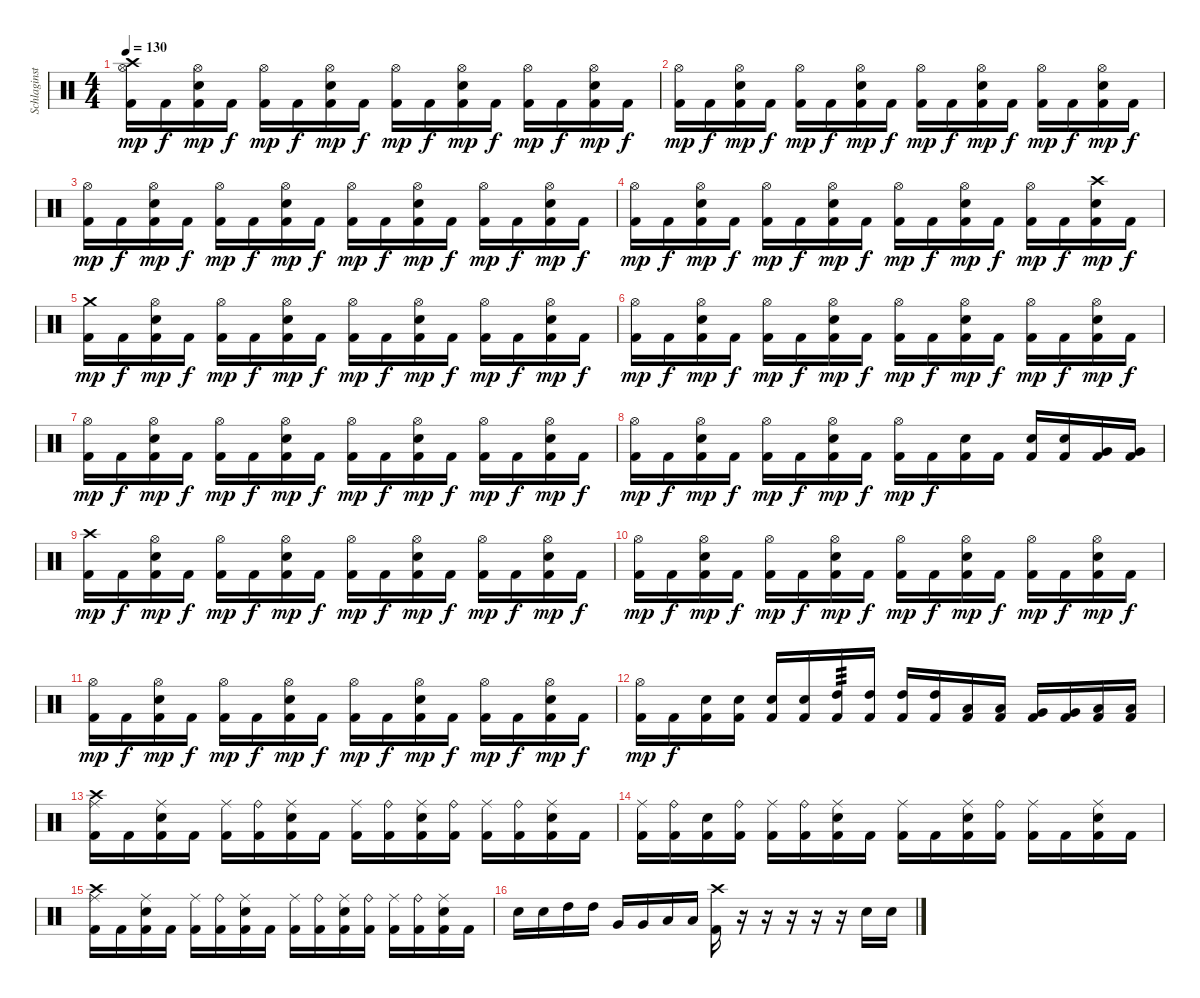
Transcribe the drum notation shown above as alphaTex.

\track ("Schlaginstrumente - Auswahl" "Schlaginst") {instrument percussion}
\staff {score}
\articulation defaults
\ts (4 4)
\tempo 130
\clef neutral
\ks c
("Crash high (hit)" "Hi-Hat (open)" "Kick (hit) 2").16{dy mp} "Kick (hit) 2".16{dy f} ("Hi-Hat (open)" "Electric Snare (hit)" "Kick (hit) 2").16{dy mp} "Kick (hit) 2".16{dy f} ("Hi-Hat (open)" "Kick (hit) 2").16{dy mp} "Kick (hit) 2".16{dy f} ("Hi-Hat (open)" "Electric Snare (hit)" "Kick (hit) 2").16{dy mp} "Kick (hit) 2".16{dy f} ("Hi-Hat (open)" "Kick (hit) 2").16{dy mp} "Kick (hit) 2".16{dy f} ("Hi-Hat (open)" "Electric Snare (hit)" "Kick (hit) 2").16{dy mp} "Kick (hit) 2".16{dy f} ("Hi-Hat (open)" "Kick (hit) 2").16{dy mp} "Kick (hit) 2".16{dy f} ("Hi-Hat (open)" "Electric Snare (hit)" "Kick (hit) 2").16{dy mp} "Kick (hit) 2".16{dy f} |
("Hi-Hat (open)" "Kick (hit) 2").16{dy mp} "Kick (hit) 2".16{dy f} ("Hi-Hat (open)" "Electric Snare (hit)" "Kick (hit) 2").16{dy mp} "Kick (hit) 2".16{dy f} ("Hi-Hat (open)" "Kick (hit) 2").16{dy mp} "Kick (hit) 2".16{dy f} ("Hi-Hat (open)" "Electric Snare (hit)" "Kick (hit) 2").16{dy mp} "Kick (hit) 2".16{dy f} ("Hi-Hat (open)" "Kick (hit) 2").16{dy mp} "Kick (hit) 2".16{dy f} ("Hi-Hat (open)" "Electric Snare (hit)" "Kick (hit) 2").16{dy mp} "Kick (hit) 2".16{dy f} ("Hi-Hat (open)" "Kick (hit) 2").16{dy mp} "Kick (hit) 2".16{dy f} ("Hi-Hat (open)" "Electric Snare (hit)" "Kick (hit) 2").16{dy mp} "Kick (hit) 2".16{dy f} |
("Hi-Hat (open)" "Kick (hit) 2").16{dy mp} "Kick (hit) 2".16{dy f} ("Hi-Hat (open)" "Electric Snare (hit)" "Kick (hit) 2").16{dy mp} "Kick (hit) 2".16{dy f} ("Hi-Hat (open)" "Kick (hit) 2").16{dy mp} "Kick (hit) 2".16{dy f} ("Hi-Hat (open)" "Electric Snare (hit)" "Kick (hit) 2").16{dy mp} "Kick (hit) 2".16{dy f} ("Hi-Hat (open)" "Kick (hit) 2").16{dy mp} "Kick (hit) 2".16{dy f} ("Hi-Hat (open)" "Electric Snare (hit)" "Kick (hit) 2").16{dy mp} "Kick (hit) 2".16{dy f} ("Hi-Hat (open)" "Kick (hit) 2").16{dy mp} "Kick (hit) 2".16{dy f} ("Hi-Hat (open)" "Electric Snare (hit)" "Kick (hit) 2").16{dy mp} "Kick (hit) 2".16{dy f} |
("Hi-Hat (open)" "Kick (hit) 2").16{dy mp} "Kick (hit) 2".16{dy f} ("Hi-Hat (open)" "Electric Snare (hit)" "Kick (hit) 2").16{dy mp} "Kick (hit) 2".16{dy f} ("Hi-Hat (open)" "Kick (hit) 2").16{dy mp} "Kick (hit) 2".16{dy f} ("Hi-Hat (open)" "Electric Snare (hit)" "Kick (hit) 2").16{dy mp} "Kick (hit) 2".16{dy f} ("Hi-Hat (open)" "Kick (hit) 2").16{dy mp} "Kick (hit) 2".16{dy f} ("Hi-Hat (open)" "Electric Snare (hit)" "Kick (hit) 2").16{dy mp} "Kick (hit) 2".16{dy f} ("Hi-Hat (open)" "Kick (hit) 2").16{dy mp} "Kick (hit) 2".16{dy f} ("Crash high (hit)" "Electric Snare (hit)" "Kick (hit) 2").16{dy mp} "Kick (hit) 2".16{dy f} |
("Crash medium (hit)" "Kick (hit) 2").16{dy mp} "Kick (hit) 2".16{dy f} ("Hi-Hat (open)" "Electric Snare (hit)" "Kick (hit) 2").16{dy mp} "Kick (hit) 2".16{dy f} ("Hi-Hat (open)" "Kick (hit) 2").16{dy mp} "Kick (hit) 2".16{dy f} ("Hi-Hat (open)" "Electric Snare (hit)" "Kick (hit) 2").16{dy mp} "Kick (hit) 2".16{dy f} ("Hi-Hat (open)" "Kick (hit) 2").16{dy mp} "Kick (hit) 2".16{dy f} ("Hi-Hat (open)" "Electric Snare (hit)" "Kick (hit) 2").16{dy mp} "Kick (hit) 2".16{dy f} ("Hi-Hat (open)" "Kick (hit) 2").16{dy mp} "Kick (hit) 2".16{dy f} ("Hi-Hat (open)" "Electric Snare (hit)" "Kick (hit) 2").16{dy mp} "Kick (hit) 2".16{dy f} |
("Hi-Hat (open)" "Kick (hit) 2").16{dy mp} "Kick (hit) 2".16{dy f} ("Hi-Hat (open)" "Electric Snare (hit)" "Kick (hit) 2").16{dy mp} "Kick (hit) 2".16{dy f} ("Hi-Hat (open)" "Kick (hit) 2").16{dy mp} "Kick (hit) 2".16{dy f} ("Hi-Hat (open)" "Electric Snare (hit)" "Kick (hit) 2").16{dy mp} "Kick (hit) 2".16{dy f} ("Hi-Hat (open)" "Kick (hit) 2").16{dy mp} "Kick (hit) 2".16{dy f} ("Hi-Hat (open)" "Electric Snare (hit)" "Kick (hit) 2").16{dy mp} "Kick (hit) 2".16{dy f} ("Hi-Hat (open)" "Kick (hit) 2").16{dy mp} "Kick (hit) 2".16{dy f} ("Hi-Hat (open)" "Electric Snare (hit)" "Kick (hit) 2").16{dy mp} "Kick (hit) 2".16{dy f} |
("Hi-Hat (open)" "Kick (hit) 2").16{dy mp} "Kick (hit) 2".16{dy f} ("Hi-Hat (open)" "Electric Snare (hit)" "Kick (hit) 2").16{dy mp} "Kick (hit) 2".16{dy f} ("Hi-Hat (open)" "Kick (hit) 2").16{dy mp} "Kick (hit) 2".16{dy f} ("Hi-Hat (open)" "Electric Snare (hit)" "Kick (hit) 2").16{dy mp} "Kick (hit) 2".16{dy f} ("Hi-Hat (open)" "Kick (hit) 2").16{dy mp} "Kick (hit) 2".16{dy f} ("Hi-Hat (open)" "Electric Snare (hit)" "Kick (hit) 2").16{dy mp} "Kick (hit) 2".16{dy f} ("Hi-Hat (open)" "Kick (hit) 2").16{dy mp} "Kick (hit) 2".16{dy f} ("Hi-Hat (open)" "Electric Snare (hit)" "Kick (hit) 2").16{dy mp} "Kick (hit) 2".16{dy f} |
("Hi-Hat (open)" "Kick (hit) 2").16{dy mp} "Kick (hit) 2".16{dy f} ("Hi-Hat (open)" "Electric Snare (hit)" "Kick (hit) 2").16{dy mp} "Kick (hit) 2".16{dy f} ("Hi-Hat (open)" "Kick (hit) 2").16{dy mp} "Kick (hit) 2".16{dy f} ("Hi-Hat (open)" "Electric Snare (hit)" "Kick (hit) 2").16{dy mp} "Kick (hit) 2".16{dy f} ("Hi-Hat (open)" "Kick (hit) 2").16{dy mp} "Kick (hit) 2".16{dy f} ("Electric Snare (hit)" "Kick (hit) 2").16 "Kick (hit) 2".16 ("Electric Snare (hit)" "Kick (hit) 2").16 ("Electric Snare (hit)" "Kick (hit) 2").16 ("Very Low Tom (hit)" "Kick (hit) 2").16 ("Very Low Tom (hit)" "Kick (hit) 2").16 |
("Crash high (hit)" "Kick (hit) 2").16{dy mp} "Kick (hit) 2".16{dy f} ("Hi-Hat (open)" "Electric Snare (hit)" "Kick (hit) 2").16{dy mp} "Kick (hit) 2".16{dy f} ("Hi-Hat (open)" "Kick (hit) 2").16{dy mp} "Kick (hit) 2".16{dy f} ("Hi-Hat (open)" "Electric Snare (hit)" "Kick (hit) 2").16{dy mp} "Kick (hit) 2".16{dy f} ("Hi-Hat (open)" "Kick (hit) 2").16{dy mp} "Kick (hit) 2".16{dy f} ("Hi-Hat (open)" "Electric Snare (hit)" "Kick (hit) 2").16{dy mp} "Kick (hit) 2".16{dy f} ("Hi-Hat (open)" "Kick (hit) 2").16{dy mp} "Kick (hit) 2".16{dy f} ("Hi-Hat (open)" "Electric Snare (hit)" "Kick (hit) 2").16{dy mp} "Kick (hit) 2".16{dy f} |
("Hi-Hat (open)" "Kick (hit) 2").16{dy mp} "Kick (hit) 2".16{dy f} ("Hi-Hat (open)" "Electric Snare (hit)" "Kick (hit) 2").16{dy mp} "Kick (hit) 2".16{dy f} ("Hi-Hat (open)" "Kick (hit) 2").16{dy mp} "Kick (hit) 2".16{dy f} ("Hi-Hat (open)" "Electric Snare (hit)" "Kick (hit) 2").16{dy mp} "Kick (hit) 2".16{dy f} ("Hi-Hat (open)" "Kick (hit) 2").16{dy mp} "Kick (hit) 2".16{dy f} ("Hi-Hat (open)" "Electric Snare (hit)" "Kick (hit) 2").16{dy mp} "Kick (hit) 2".16{dy f} ("Hi-Hat (open)" "Kick (hit) 2").16{dy mp} "Kick (hit) 2".16{dy f} ("Hi-Hat (open)" "Electric Snare (hit)" "Kick (hit) 2").16{dy mp} "Kick (hit) 2".16{dy f} |
("Hi-Hat (open)" "Kick (hit) 2").16{dy mp} "Kick (hit) 2".16{dy f} ("Hi-Hat (open)" "Electric Snare (hit)" "Kick (hit) 2").16{dy mp} "Kick (hit) 2".16{dy f} ("Hi-Hat (open)" "Kick (hit) 2").16{dy mp} "Kick (hit) 2".16{dy f} ("Hi-Hat (open)" "Electric Snare (hit)" "Kick (hit) 2").16{dy mp} "Kick (hit) 2".16{dy f} ("Hi-Hat (open)" "Kick (hit) 2").16{dy mp} "Kick (hit) 2".16{dy f} ("Hi-Hat (open)" "Electric Snare (hit)" "Kick (hit) 2").16{dy mp} "Kick (hit) 2".16{dy f} ("Hi-Hat (open)" "Kick (hit) 2").16{dy mp} "Kick (hit) 2".16{dy f} ("Hi-Hat (open)" "Electric Snare (hit)" "Kick (hit) 2").16{dy mp} "Kick (hit) 2".16{dy f} |
("Hi-Hat (open)" "Kick (hit) 2").16{dy mp} "Kick (hit) 2".16{dy f} ("Electric Snare (hit)" "Kick (hit) 2").16 ("Electric Snare (hit)" "Kick (hit) 2").16 ("Electric Snare (hit)" "Kick (hit) 2").16 ("Electric Snare (hit)" "Kick (hit) 2").16 ("High Tom (hit)" "Kick (hit) 2").16{tp 3} ("High Tom (hit)" "Kick (hit) 2").16 ("High Tom (hit)" "Kick (hit) 2").16 ("High Tom (hit)" "Kick (hit) 2").16 ("Low Tom (hit)" "Kick (hit) 2").16 ("Low Tom (hit)" "Kick (hit) 2").16 ("Very Low Tom (hit)" "Kick (hit) 2").16 ("Very Low Tom (hit)" "Kick (hit) 2").16 ("Low Floor Tom (hit)" "Kick (hit) 2").16 ("Low Floor Tom (hit)" "Kick (hit) 2").16 |
("Crash high (hit)" "Ride (middle)" "Kick (hit) 2").16 "Kick (hit) 2".16 ("Ride (middle)" "Electric Snare (hit)" "Kick (hit) 2").16 "Kick (hit) 2".16 ("Ride (middle)" "Kick (hit) 2").16 ("Ride (bell)" "Kick (hit) 2").16 ("Ride (middle)" "Electric Snare (hit)" "Kick (hit) 2").16 "Kick (hit) 2".16 ("Ride (middle)" "Kick (hit) 2").16 ("Ride (bell)" "Kick (hit) 2").16 ("Ride (middle)" "Electric Snare (hit)" "Kick (hit) 2").16 ("Ride (bell)" "Kick (hit) 2").16 ("Ride (middle)" "Kick (hit) 2").16 ("Ride (bell)" "Kick (hit) 2").16 ("Ride (middle)" "Electric Snare (hit)" "Kick (hit) 2").16 "Kick (hit) 2".16 |
("Ride (middle)" "Kick (hit) 2").16 ("Ride (bell)" "Kick (hit) 2").16 ("Electric Snare (hit)" "Kick (hit) 2").16 ("Ride (bell)" "Kick (hit) 2").16 ("Ride (middle)" "Kick (hit) 2").16 ("Ride (bell)" "Kick (hit) 2").16 ("Ride (middle)" "Electric Snare (hit)" "Kick (hit) 2").16 "Kick (hit) 2".16 ("Ride (middle)" "Kick (hit) 2").16 "Kick (hit) 2".16 ("Ride (middle)" "Electric Snare (hit)" "Kick (hit) 2").16 ("Ride (bell)" "Kick (hit) 2").16 ("Ride (middle)" "Kick (hit) 2").16 "Kick (hit) 2".16 ("Ride (middle)" "Electric Snare (hit)" "Kick (hit) 2").16 "Kick (hit) 2".16 |
("Crash high (hit)" "Ride (middle)" "Kick (hit) 2").16 "Kick (hit) 2".16 ("Ride (middle)" "Electric Snare (hit)" "Kick (hit) 2").16 "Kick (hit) 2".16 ("Ride (middle)" "Kick (hit) 2").16 ("Ride (bell)" "Kick (hit) 2").16 ("Ride (middle)" "Electric Snare (hit)" "Kick (hit) 2").16 "Kick (hit) 2".16 ("Ride (middle)" "Kick (hit) 2").16 ("Ride (bell)" "Kick (hit) 2").16 ("Ride (middle)" "Electric Snare (hit)" "Kick (hit) 2").16 ("Ride (bell)" "Kick (hit) 2").16 ("Ride (middle)" "Kick (hit) 2").16 ("Ride (bell)" "Kick (hit) 2").16 ("Ride (middle)" "Electric Snare (hit)" "Kick (hit) 2").16 "Kick (hit) 2".16 |
"Electric Snare (hit)".16 "Electric Snare (hit)".16 "High Tom (hit)".16 "High Tom (hit)".16 "Very Low Tom (hit)".16 "Very Low Tom (hit)".16 "Low Floor Tom (hit)".16 "Low Floor Tom (hit)".16 ("Crash high (hit)" "Kick (hit) 2").16 r.16 r.16 r.16 r.16 r.16 "Electric Snare (hit)".16 "Electric Snare (hit)".16
